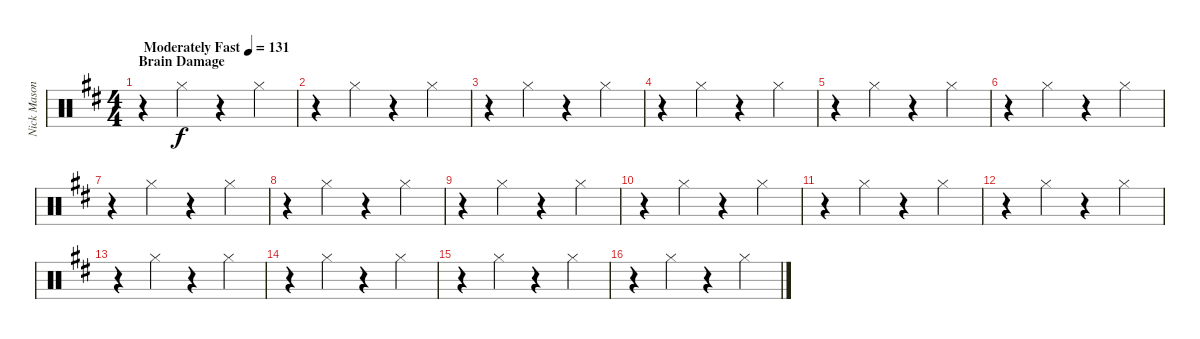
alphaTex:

\track ("Nick Mason" "Nick Mason") {instrument percussion}
\staff {score}
\articulation defaults
\ts (4 4)
\section ("" "Brain Damage")
\tempo (131 "Moderately Fast")
\clef neutral
\ks d
r.4{dy f} "Hi-Hat (closed)".4 r.4 "Hi-Hat (closed)".4 |
r.4 "Hi-Hat (closed)".4 r.4 "Hi-Hat (closed)".4 |
r.4 "Hi-Hat (closed)".4 r.4 "Hi-Hat (closed)".4 |
r.4 "Hi-Hat (closed)".4 r.4 "Hi-Hat (closed)".4 |
r.4 "Hi-Hat (closed)".4 r.4 "Hi-Hat (closed)".4 |
r.4 "Hi-Hat (closed)".4 r.4 "Hi-Hat (closed)".4 |
r.4 "Hi-Hat (closed)".4 r.4 "Hi-Hat (closed)".4 |
r.4 "Hi-Hat (closed)".4 r.4 "Hi-Hat (closed)".4 |
r.4 "Hi-Hat (closed)".4 r.4 "Hi-Hat (closed)".4 |
r.4 "Hi-Hat (closed)".4 r.4 "Hi-Hat (closed)".4 |
r.4 "Hi-Hat (closed)".4 r.4 "Hi-Hat (closed)".4 |
r.4 "Hi-Hat (closed)".4 r.4 "Hi-Hat (closed)".4 |
r.4 "Hi-Hat (closed)".4 r.4 "Hi-Hat (closed)".4 |
r.4 "Hi-Hat (closed)".4 r.4 "Hi-Hat (closed)".4 |
r.4 "Hi-Hat (closed)".4 r.4 "Hi-Hat (closed)".4 |
r.4 "Hi-Hat (closed)".4 r.4 "Hi-Hat (closed)".4
